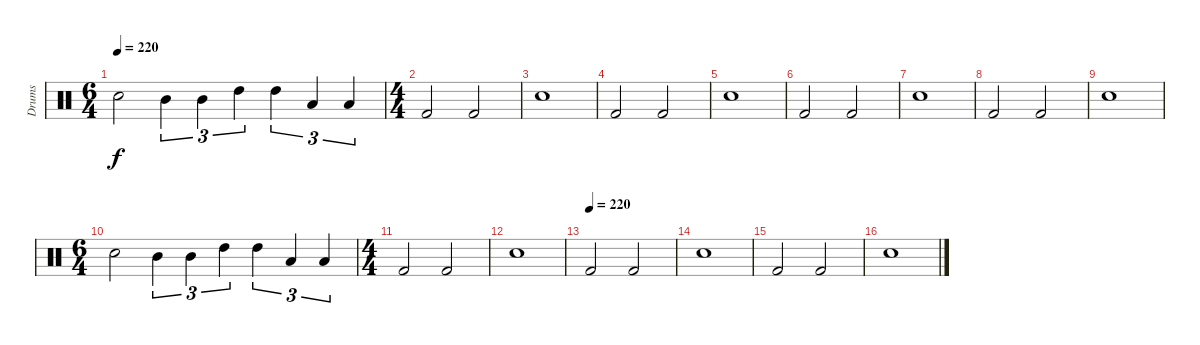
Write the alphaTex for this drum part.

\track ("Drums" "Drums") {instrument percussion}
\staff {score}
\articulation defaults
\ts (6 4)
\tempo 220
\clef neutral
\ks c "Electric Snare (hit)".2{dy f} "Mid Tom (hit)".4{tu (3 2)} "Mid Tom (hit)".4{tu (3 2)} "High Tom (hit)".4{tu (3 2)} "High Tom (hit)".4{tu (3 2)} "Low Tom (hit)".4{tu (3 2)} "Low Tom (hit)".4{tu (3 2)}
|
\ts (4 4)
"Kick (hit) 2".2 "Kick (hit) 2".2 |
"Electric Snare (hit)".1 |
"Kick (hit) 2".2 "Kick (hit) 2".2 |
"Electric Snare (hit)".1 |
"Kick (hit) 2".2 "Kick (hit) 2".2 |
"Electric Snare (hit)".1 |
"Kick (hit) 2".2 "Kick (hit) 2".2 |
"Electric Snare (hit)".1 |
\ts (6 4)
"Electric Snare (hit)".2 "Mid Tom (hit)".4{tu (3 2)} "Mid Tom (hit)".4{tu (3 2)} "High Tom (hit)".4{tu (3 2)} "High Tom (hit)".4{tu (3 2)} "Low Tom (hit)".4{tu (3 2)} "Low Tom (hit)".4{tu (3 2)} |
\ts (4 4)
"Kick (hit) 2".2 "Kick (hit) 2".2 |
"Electric Snare (hit)".1 |
\tempo (220)
"Kick (hit) 2".2 "Kick (hit) 2".2 |
"Electric Snare (hit)".1 |
"Kick (hit) 2".2 "Kick (hit) 2".2 |
"Electric Snare (hit)".1
